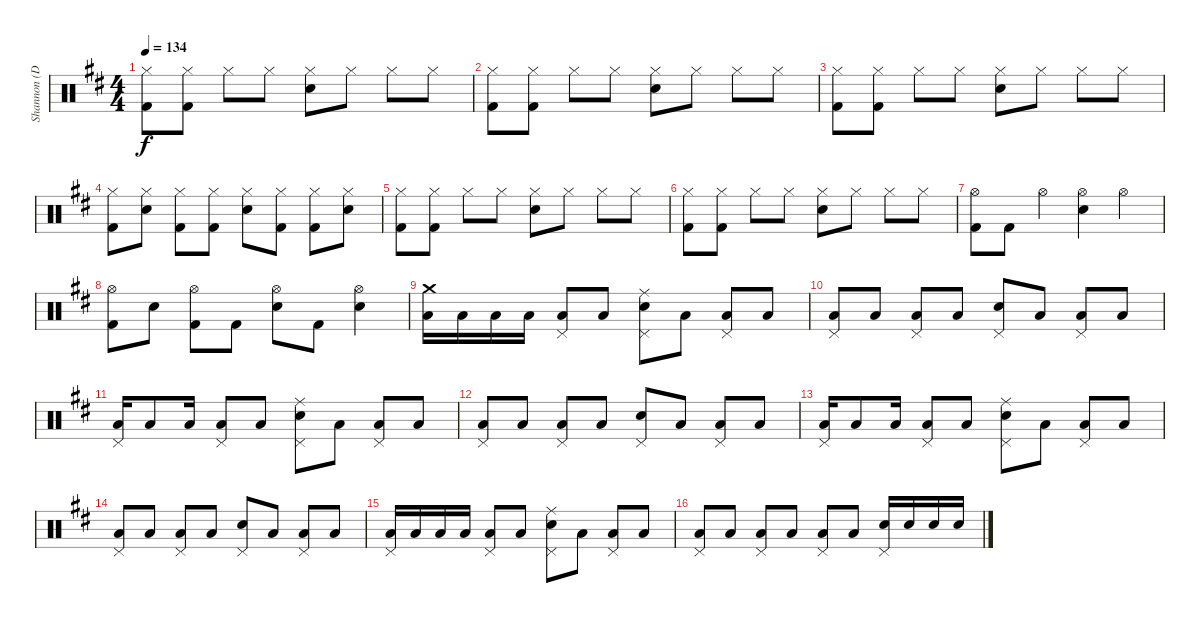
\track ("Shannon (Drums)" "Shannon (D") {instrument percussion}
\staff {score}
\articulation defaults
\ts (4 4)
\tempo 134
\clef neutral
\ks d
("Hi-Hat (closed)" "Kick (hit) 2").8{dy f} ("Hi-Hat (closed)" "Kick (hit) 2").8 "Hi-Hat (closed)".8 "Hi-Hat (closed)".8 ("Hi-Hat (closed)" "Electric Snare (hit)").8 "Hi-Hat (closed)".8 "Hi-Hat (closed)".8 "Hi-Hat (closed)".8 |
("Hi-Hat (closed)" "Kick (hit) 2").8 ("Hi-Hat (closed)" "Kick (hit) 2").8 "Hi-Hat (closed)".8 "Hi-Hat (closed)".8 ("Hi-Hat (closed)" "Electric Snare (hit)").8 "Hi-Hat (closed)".8 "Hi-Hat (closed)".8 "Hi-Hat (closed)".8 |
("Hi-Hat (closed)" "Kick (hit) 2").8 ("Hi-Hat (closed)" "Kick (hit) 2").8 "Hi-Hat (closed)".8 "Hi-Hat (closed)".8 ("Hi-Hat (closed)" "Electric Snare (hit)").8 "Hi-Hat (closed)".8 "Hi-Hat (closed)".8 "Hi-Hat (closed)".8 |
("Hi-Hat (closed)" "Kick (hit) 2").8 ("Hi-Hat (closed)" "Electric Snare (hit)").8 ("Hi-Hat (closed)" "Kick (hit) 2").8 ("Hi-Hat (closed)" "Kick (hit) 2").8 ("Hi-Hat (closed)" "Electric Snare (hit)").8 ("Hi-Hat (closed)" "Kick (hit) 2").8 ("Hi-Hat (closed)" "Kick (hit) 2").8 ("Hi-Hat (closed)" "Electric Snare (hit)").8 |
("Hi-Hat (closed)" "Kick (hit) 2").8 ("Hi-Hat (closed)" "Kick (hit) 2").8 "Hi-Hat (closed)".8 "Hi-Hat (closed)".8 ("Hi-Hat (closed)" "Electric Snare (hit)").8 "Hi-Hat (closed)".8 "Hi-Hat (closed)".8 "Hi-Hat (closed)".8 |
("Hi-Hat (closed)" "Kick (hit) 2").8 ("Hi-Hat (closed)" "Kick (hit) 2").8 "Hi-Hat (closed)".8 "Hi-Hat (closed)".8 ("Hi-Hat (closed)" "Electric Snare (hit)").8 "Hi-Hat (closed)".8 "Hi-Hat (closed)".8 "Hi-Hat (closed)".8 |
("Hi-Hat (open)" "Kick (hit) 2").8 "Kick (hit) 2".8 "Hi-Hat (open)".4 ("Hi-Hat (open)" "Electric Snare (hit)").4 "Hi-Hat (open)".4 |
("Hi-Hat (open)" "Kick (hit) 2").8 "Electric Snare (hit)".8 ("Hi-Hat (open)" "Kick (hit) 2").8 "Kick (hit) 2".8 ("Hi-Hat (open)" "Electric Snare (hit)").8 "Kick (hit) 2".8 ("Hi-Hat (open)" "Electric Snare (hit)").4 |
("Crash medium (hit)" "Low Tom (hit)").16 "Low Tom (hit)".16 "Low Tom (hit)".16 "Low Tom (hit)".16 ("Pedal Hi-Hat (hit)" "Low Tom (hit)").8 "Low Tom (hit)".8 ("Pedal Hi-Hat (hit)" "Ride (middle)" "Electric Snare (hit)").8 "Low Tom (hit)".8 ("Pedal Hi-Hat (hit)" "Low Tom (hit)").8 "Low Tom (hit)".8 |
("Pedal Hi-Hat (hit)" "Low Tom (hit)").8 "Low Tom (hit)".8 ("Pedal Hi-Hat (hit)" "Low Tom (hit)").8 "Low Tom (hit)".8 ("Pedal Hi-Hat (hit)" "Electric Snare (hit)").8 "Low Tom (hit)".8 ("Pedal Hi-Hat (hit)" "Low Tom (hit)").8 "Low Tom (hit)".8 |
("Pedal Hi-Hat (hit)" "Low Tom (hit)").16 "Low Tom (hit)".8 "Low Tom (hit)".16 ("Pedal Hi-Hat (hit)" "Low Tom (hit)").8 "Low Tom (hit)".8 ("Pedal Hi-Hat (hit)" "Ride (middle)" "Electric Snare (hit)").8 "Low Tom (hit)".8 ("Pedal Hi-Hat (hit)" "Low Tom (hit)").8 "Low Tom (hit)".8 |
("Pedal Hi-Hat (hit)" "Low Tom (hit)").8 "Low Tom (hit)".8 ("Pedal Hi-Hat (hit)" "Low Tom (hit)").8 "Low Tom (hit)".8 ("Pedal Hi-Hat (hit)" "Electric Snare (hit)").8 "Low Tom (hit)".8 ("Pedal Hi-Hat (hit)" "Low Tom (hit)").8 "Low Tom (hit)".8 |
("Pedal Hi-Hat (hit)" "Low Tom (hit)").16 "Low Tom (hit)".8 "Low Tom (hit)".16 ("Pedal Hi-Hat (hit)" "Low Tom (hit)").8 "Low Tom (hit)".8 ("Pedal Hi-Hat (hit)" "Ride (middle)" "Electric Snare (hit)").8 "Low Tom (hit)".8 ("Pedal Hi-Hat (hit)" "Low Tom (hit)").8 "Low Tom (hit)".8 |
("Pedal Hi-Hat (hit)" "Low Tom (hit)").8 "Low Tom (hit)".8 ("Pedal Hi-Hat (hit)" "Low Tom (hit)").8 "Low Tom (hit)".8 ("Pedal Hi-Hat (hit)" "Electric Snare (hit)").8 "Low Tom (hit)".8 ("Pedal Hi-Hat (hit)" "Low Tom (hit)").8 "Low Tom (hit)".8 |
("Pedal Hi-Hat (hit)" "Low Tom (hit)").16 "Low Tom (hit)".16 "Low Tom (hit)".16 "Low Tom (hit)".16 ("Pedal Hi-Hat (hit)" "Low Tom (hit)").8 "Low Tom (hit)".8 ("Pedal Hi-Hat (hit)" "Ride (middle)" "Electric Snare (hit)").8 "Low Tom (hit)".8 ("Pedal Hi-Hat (hit)" "Low Tom (hit)").8 "Low Tom (hit)".8 |
("Pedal Hi-Hat (hit)" "Low Tom (hit)").8 "Low Tom (hit)".8 ("Pedal Hi-Hat (hit)" "Low Tom (hit)").8 "Low Tom (hit)".8 ("Pedal Hi-Hat (hit)" "Low Tom (hit)").8 "Low Tom (hit)".8 ("Pedal Hi-Hat (hit)" "Electric Snare (hit)").16 "Electric Snare (hit)".16 "Electric Snare (hit)".16 "Electric Snare (hit)".16
